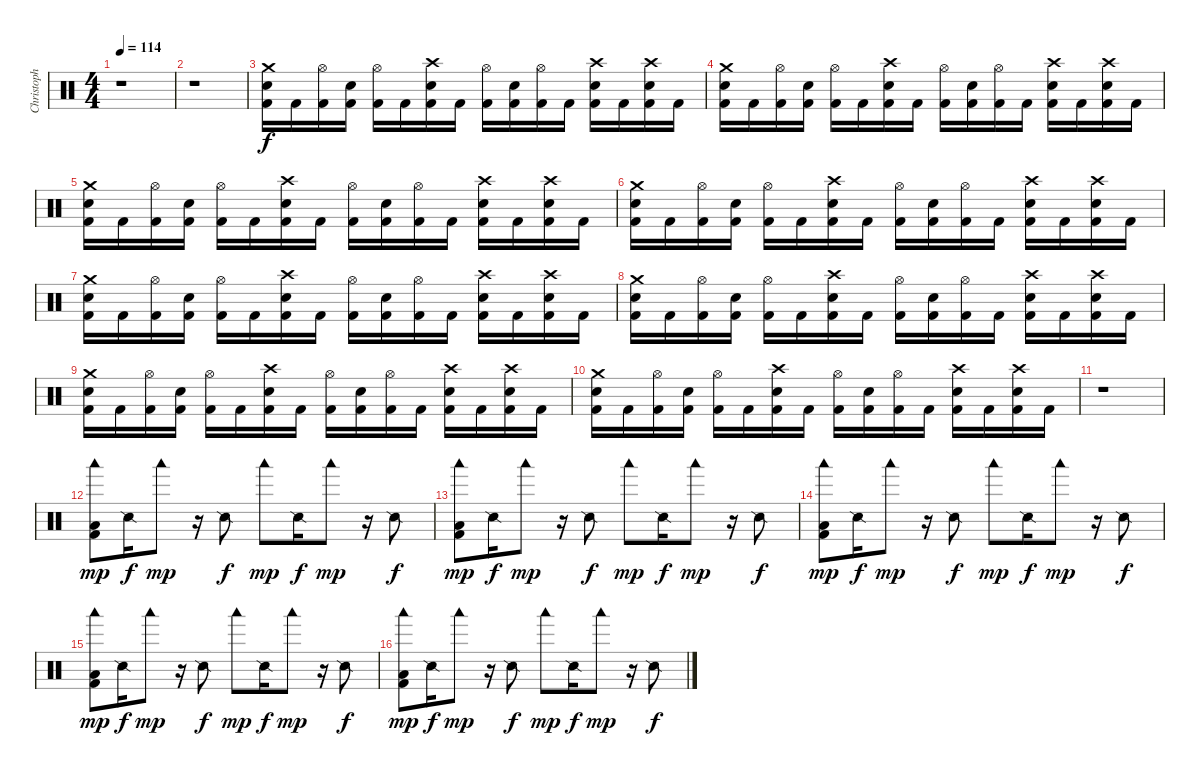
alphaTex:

\track ("Christoph Schneider [Drums]" "Christoph ") {instrument percussion}
\staff {score}
\articulation defaults
\ts (4 4)
\tempo 114
\clef neutral
\ks c
r.1{dy f} |
r.1 |
("Crash medium (hit)" "Electric Snare (hit)" "Kick (hit) 2").16 "Kick (hit) 2".16 ("Hi-Hat (open)" "Kick (hit) 2").16 ("Electric Snare (hit)" "Kick (hit) 2").16 ("Hi-Hat (open)" "Kick (hit) 2").16 "Kick (hit) 2".16 ("Crash high (hit)" "Electric Snare (hit)" "Kick (hit) 2").16 "Kick (hit) 2".16 ("Hi-Hat (open)" "Kick (hit) 2").16 ("Electric Snare (hit)" "Kick (hit) 2").16 ("Hi-Hat (open)" "Kick (hit) 2").16 "Kick (hit) 2".16 ("Crash high (hit)" "Electric Snare (hit)" "Kick (hit) 2").16 "Kick (hit) 2".16 ("Crash high (hit)" "Electric Snare (hit)" "Kick (hit) 2").16 "Kick (hit) 2".16 |
("Crash medium (hit)" "Electric Snare (hit)" "Kick (hit) 2").16 "Kick (hit) 2".16 ("Hi-Hat (open)" "Kick (hit) 2").16 ("Electric Snare (hit)" "Kick (hit) 2").16 ("Hi-Hat (open)" "Kick (hit) 2").16 "Kick (hit) 2".16 ("Crash high (hit)" "Electric Snare (hit)" "Kick (hit) 2").16 "Kick (hit) 2".16 ("Hi-Hat (open)" "Kick (hit) 2").16 ("Electric Snare (hit)" "Kick (hit) 2").16 ("Hi-Hat (open)" "Kick (hit) 2").16 "Kick (hit) 2".16 ("Crash high (hit)" "Electric Snare (hit)" "Kick (hit) 2").16 "Kick (hit) 2".16 ("Crash high (hit)" "Electric Snare (hit)" "Kick (hit) 2").16 "Kick (hit) 2".16 |
("Crash medium (hit)" "Electric Snare (hit)" "Kick (hit) 2").16 "Kick (hit) 2".16 ("Hi-Hat (open)" "Kick (hit) 2").16 ("Electric Snare (hit)" "Kick (hit) 2").16 ("Hi-Hat (open)" "Kick (hit) 2").16 "Kick (hit) 2".16 ("Crash high (hit)" "Electric Snare (hit)" "Kick (hit) 2").16 "Kick (hit) 2".16 ("Hi-Hat (open)" "Kick (hit) 2").16 ("Electric Snare (hit)" "Kick (hit) 2").16 ("Hi-Hat (open)" "Kick (hit) 2").16 "Kick (hit) 2".16 ("Crash high (hit)" "Electric Snare (hit)" "Kick (hit) 2").16 "Kick (hit) 2".16 ("Crash high (hit)" "Electric Snare (hit)" "Kick (hit) 2").16 "Kick (hit) 2".16 |
("Crash medium (hit)" "Electric Snare (hit)" "Kick (hit) 2").16 "Kick (hit) 2".16 ("Hi-Hat (open)" "Kick (hit) 2").16 ("Electric Snare (hit)" "Kick (hit) 2").16 ("Hi-Hat (open)" "Kick (hit) 2").16 "Kick (hit) 2".16 ("Crash high (hit)" "Electric Snare (hit)" "Kick (hit) 2").16 "Kick (hit) 2".16 ("Hi-Hat (open)" "Kick (hit) 2").16 ("Electric Snare (hit)" "Kick (hit) 2").16 ("Hi-Hat (open)" "Kick (hit) 2").16 "Kick (hit) 2".16 ("Crash high (hit)" "Electric Snare (hit)" "Kick (hit) 2").16 "Kick (hit) 2".16 ("Crash high (hit)" "Electric Snare (hit)" "Kick (hit) 2").16 "Kick (hit) 2".16 |
("Crash medium (hit)" "Electric Snare (hit)" "Kick (hit) 2").16 "Kick (hit) 2".16 ("Hi-Hat (open)" "Kick (hit) 2").16 ("Electric Snare (hit)" "Kick (hit) 2").16 ("Hi-Hat (open)" "Kick (hit) 2").16 "Kick (hit) 2".16 ("Crash high (hit)" "Electric Snare (hit)" "Kick (hit) 2").16 "Kick (hit) 2".16 ("Hi-Hat (open)" "Kick (hit) 2").16 ("Electric Snare (hit)" "Kick (hit) 2").16 ("Hi-Hat (open)" "Kick (hit) 2").16 "Kick (hit) 2".16 ("Crash high (hit)" "Electric Snare (hit)" "Kick (hit) 2").16 "Kick (hit) 2".16 ("Crash high (hit)" "Electric Snare (hit)" "Kick (hit) 2").16 "Kick (hit) 2".16 |
("Crash medium (hit)" "Electric Snare (hit)" "Kick (hit) 2").16 "Kick (hit) 2".16 ("Hi-Hat (open)" "Kick (hit) 2").16 ("Electric Snare (hit)" "Kick (hit) 2").16 ("Hi-Hat (open)" "Kick (hit) 2").16 "Kick (hit) 2".16 ("Crash high (hit)" "Electric Snare (hit)" "Kick (hit) 2").16 "Kick (hit) 2".16 ("Hi-Hat (open)" "Kick (hit) 2").16 ("Electric Snare (hit)" "Kick (hit) 2").16 ("Hi-Hat (open)" "Kick (hit) 2").16 "Kick (hit) 2".16 ("Crash high (hit)" "Electric Snare (hit)" "Kick (hit) 2").16 "Kick (hit) 2".16 ("Crash high (hit)" "Electric Snare (hit)" "Kick (hit) 2").16 "Kick (hit) 2".16 |
("Crash medium (hit)" "Electric Snare (hit)" "Kick (hit) 2").16 "Kick (hit) 2".16 ("Hi-Hat (open)" "Kick (hit) 2").16 ("Electric Snare (hit)" "Kick (hit) 2").16 ("Hi-Hat (open)" "Kick (hit) 2").16 "Kick (hit) 2".16 ("Crash high (hit)" "Electric Snare (hit)" "Kick (hit) 2").16 "Kick (hit) 2".16 ("Hi-Hat (open)" "Kick (hit) 2").16 ("Electric Snare (hit)" "Kick (hit) 2").16 ("Hi-Hat (open)" "Kick (hit) 2").16 "Kick (hit) 2".16 ("Crash high (hit)" "Electric Snare (hit)" "Kick (hit) 2").16 "Kick (hit) 2".16 ("Crash high (hit)" "Electric Snare (hit)" "Kick (hit) 2").16 "Kick (hit) 2".16 |
("Crash medium (hit)" "Electric Snare (hit)" "Kick (hit) 2").16 "Kick (hit) 2".16 ("Hi-Hat (open)" "Kick (hit) 2").16 ("Electric Snare (hit)" "Kick (hit) 2").16 ("Hi-Hat (open)" "Kick (hit) 2").16 "Kick (hit) 2".16 ("Crash high (hit)" "Electric Snare (hit)" "Kick (hit) 2").16 "Kick (hit) 2".16 ("Hi-Hat (open)" "Kick (hit) 2").16 ("Electric Snare (hit)" "Kick (hit) 2").16 ("Hi-Hat (open)" "Kick (hit) 2").16 "Kick (hit) 2".16 ("Crash high (hit)" "Electric Snare (hit)" "Kick (hit) 2").16 "Kick (hit) 2".16 ("Crash high (hit)" "Electric Snare (hit)" "Kick (hit) 2").16 "Kick (hit) 2".16 |
r.1 |
("Woodblock low (hit)" "Low Floor Tom (hit)" "Kick (hit) 2").8{dy mp} "Snare (side stick) 2".16{dy f} "Woodblock low (hit)".8{dy mp} r.16 "Snare (side stick) 2".8{dy f} "Woodblock low (hit)".8{dy mp} "Snare (side stick) 2".16{dy f} "Woodblock low (hit)".8{dy mp} r.16 "Snare (side stick) 2".8{dy f} |
("Woodblock low (hit)" "Low Floor Tom (hit)" "Kick (hit) 2").8{dy mp} "Snare (side stick) 2".16{dy f} "Woodblock low (hit)".8{dy mp} r.16 "Snare (side stick) 2".8{dy f} "Woodblock low (hit)".8{dy mp} "Snare (side stick) 2".16{dy f} "Woodblock low (hit)".8{dy mp} r.16 "Snare (side stick) 2".8{dy f} |
("Woodblock low (hit)" "Low Floor Tom (hit)" "Kick (hit) 2").8{dy mp} "Snare (side stick) 2".16{dy f} "Woodblock low (hit)".8{dy mp} r.16 "Snare (side stick) 2".8{dy f} "Woodblock low (hit)".8{dy mp} "Snare (side stick) 2".16{dy f} "Woodblock low (hit)".8{dy mp} r.16 "Snare (side stick) 2".8{dy f} |
("Woodblock low (hit)" "Low Floor Tom (hit)" "Kick (hit) 2").8{dy mp} "Snare (side stick) 2".16{dy f} "Woodblock low (hit)".8{dy mp} r.16 "Snare (side stick) 2".8{dy f} "Woodblock low (hit)".8{dy mp} "Snare (side stick) 2".16{dy f} "Woodblock low (hit)".8{dy mp} r.16 "Snare (side stick) 2".8{dy f} |
("Woodblock low (hit)" "Low Floor Tom (hit)" "Kick (hit) 2").8{dy mp} "Snare (side stick) 2".16{dy f} "Woodblock low (hit)".8{dy mp} r.16 "Snare (side stick) 2".8{dy f} "Woodblock low (hit)".8{dy mp} "Snare (side stick) 2".16{dy f} "Woodblock low (hit)".8{dy mp} r.16 "Snare (side stick) 2".8{dy f}
